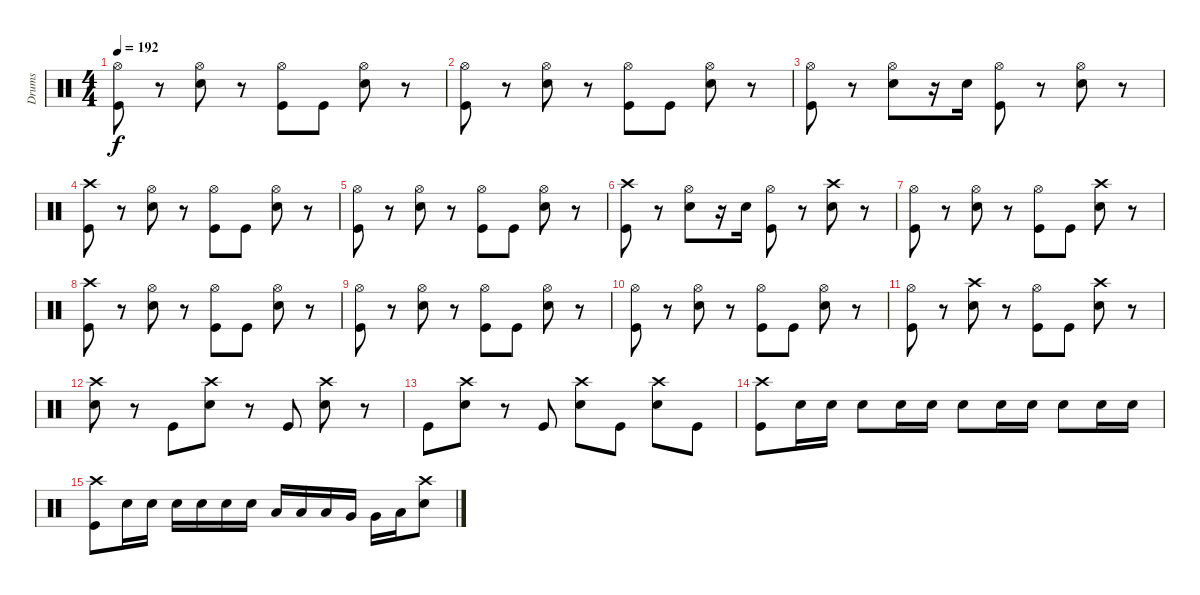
\track ("Drums" "Drums") {instrument percussion}
\staff {score}
\articulation defaults
\ts (4 4)
\tempo 192
\clef neutral
\ks c
("Kick (hit)" "Hi-Hat (open)").8{dy f} r.8 ("Electric Snare (hit)" "Hi-Hat (open)").8 r.8 ("Kick (hit)" "Hi-Hat (open)").8 "Kick (hit)".8 ("Electric Snare (hit)" "Hi-Hat (open)").8 r.8 |
("Kick (hit)" "Hi-Hat (open)").8 r.8 ("Electric Snare (hit)" "Hi-Hat (open)").8 r.8 ("Kick (hit)" "Hi-Hat (open)").8 "Kick (hit)".8 ("Electric Snare (hit)" "Hi-Hat (open)").8 r.8 |
("Kick (hit)" "Hi-Hat (open)").8 r.8 ("Electric Snare (hit)" "Hi-Hat (open)").8 r.16 "Electric Snare (hit)".16 ("Kick (hit)" "Hi-Hat (open)").8 r.8 ("Electric Snare (hit)" "Hi-Hat (open)").8 r.8 |
("Kick (hit)" "Crash high (hit)").8 r.8 ("Electric Snare (hit)" "Hi-Hat (open)").8 r.8 ("Kick (hit)" "Hi-Hat (open)").8 "Kick (hit)".8 ("Electric Snare (hit)" "Hi-Hat (open)").8 r.8 |
("Kick (hit)" "Hi-Hat (open)").8 r.8 ("Electric Snare (hit)" "Hi-Hat (open)").8 r.8 ("Kick (hit)" "Hi-Hat (open)").8 "Kick (hit)".8 ("Electric Snare (hit)" "Hi-Hat (open)").8 r.8 |
("Kick (hit)" "Crash high (hit)").8 r.8 ("Electric Snare (hit)" "Hi-Hat (open)").8 r.16 "Electric Snare (hit)".16 ("Kick (hit)" "Hi-Hat (open)").8 r.8 ("Electric Snare (hit)" "Crash high (hit)").8 r.8 |
("Kick (hit)" "Hi-Hat (open)").8 r.8 ("Electric Snare (hit)" "Hi-Hat (open)").8 r.8 ("Kick (hit)" "Hi-Hat (open)").8 "Kick (hit)".8 ("Electric Snare (hit)" "Crash high (hit)").8 r.8 |
("Kick (hit)" "Crash high (hit)").8 r.8 ("Electric Snare (hit)" "Hi-Hat (open)").8 r.8 ("Kick (hit)" "Hi-Hat (open)").8 "Kick (hit)".8 ("Electric Snare (hit)" "Hi-Hat (open)").8 r.8 |
("Kick (hit)" "Hi-Hat (open)").8 r.8 ("Electric Snare (hit)" "Hi-Hat (open)").8 r.8 ("Kick (hit)" "Hi-Hat (open)").8 "Kick (hit)".8 ("Electric Snare (hit)" "Hi-Hat (open)").8 r.8 |
("Kick (hit)" "Hi-Hat (open)").8 r.8 ("Electric Snare (hit)" "Hi-Hat (open)").8 r.8 ("Kick (hit)" "Hi-Hat (open)").8 "Kick (hit)".8 ("Electric Snare (hit)" "Hi-Hat (open)").8 r.8 |
("Kick (hit)" "Hi-Hat (open)").8 r.8 ("Electric Snare (hit)" "Crash high (hit)").8 r.8 ("Kick (hit)" "Hi-Hat (open)").8 "Kick (hit)".8 ("Electric Snare (hit)" "Crash high (hit)").8 r.8 |
("Electric Snare (hit)" "Crash high (hit)").8 r.8 "Kick (hit)".8 ("Electric Snare (hit)" "Crash high (hit)").8 r.8 "Kick (hit)".8 ("Electric Snare (hit)" "Crash high (hit)").8 r.8 |
"Kick (hit)".8 ("Electric Snare (hit)" "Crash high (hit)").8 r.8 "Kick (hit)".8 ("Electric Snare (hit)" "Crash high (hit)").8 "Kick (hit)".8 ("Electric Snare (hit)" "Crash high (hit)").8 "Kick (hit)".8 |
("Kick (hit)" "Crash high (hit)").8 "Electric Snare (hit)".16 "Electric Snare (hit)".16 "Electric Snare (hit)".8 "Electric Snare (hit)".16 "Electric Snare (hit)".16 "Electric Snare (hit)".8 "Electric Snare (hit)".16 "Electric Snare (hit)".16 "Electric Snare (hit)".8 "Electric Snare (hit)".16 "Electric Snare (hit)".16 |
("Kick (hit)" "Crash high (hit)").8 "Electric Snare (hit)".16 "Electric Snare (hit)".16 "Electric Snare (hit)".16 "Electric Snare (hit)".16 "Electric Snare (hit)".16 "Electric Snare (hit)".16 "Low Tom (hit)".16 "Low Tom (hit)".16 "Low Tom (hit)".16 "Very Low Tom (hit)".16 "Very Low Tom (hit)".16 "Low Floor Tom (hit)".16 ("Electric Snare (hit)" "Crash high (hit)").8
